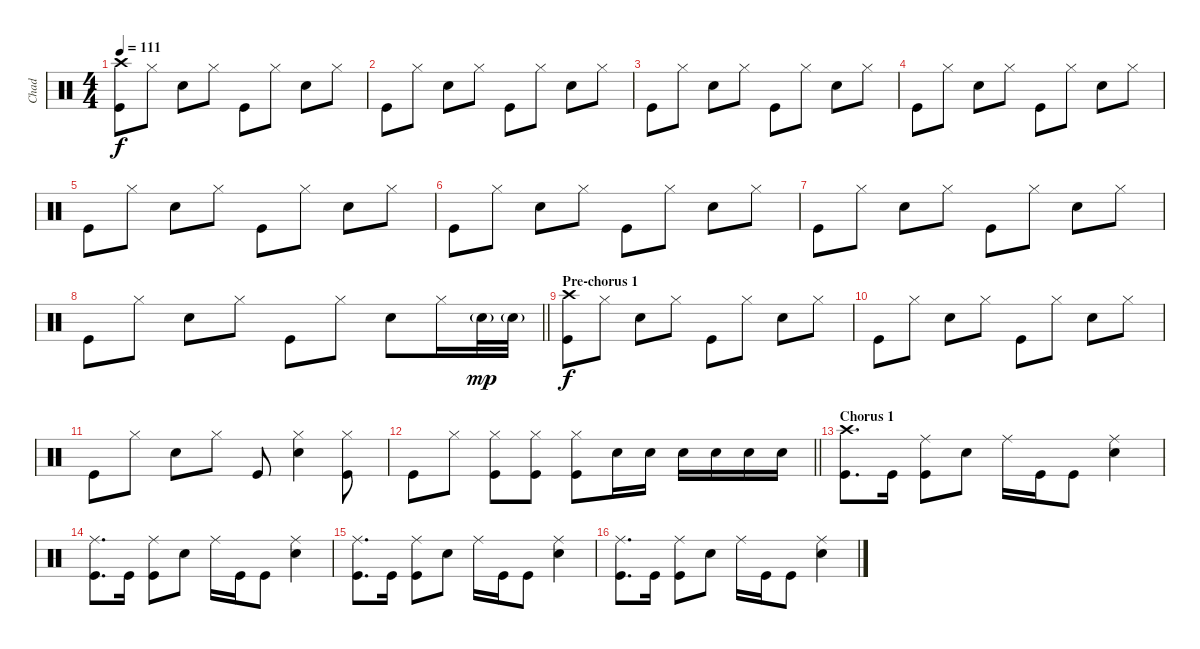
\track ("Chad" "Chad") {instrument percussion}
\staff {score}
\articulation defaults
\ts (4 4)
\tempo 111
\clef neutral
\ks c
("Crash high (hit)" "Kick (hit)").8{dy f} "Hi-Hat (closed)".8 "Snare (hit) 2".8 "Hi-Hat (closed)".8 "Kick (hit)".8 "Hi-Hat (closed)".8 "Snare (hit) 2".8 "Hi-Hat (closed)".8 |
"Kick (hit)".8 "Hi-Hat (closed)".8 "Snare (hit) 2".8 "Hi-Hat (closed)".8 "Kick (hit)".8 "Hi-Hat (closed)".8 "Snare (hit) 2".8 "Hi-Hat (closed)".8 |
"Kick (hit)".8 "Hi-Hat (closed)".8 "Snare (hit) 2".8 "Hi-Hat (closed)".8 "Kick (hit)".8 "Hi-Hat (closed)".8 "Snare (hit) 2".8 "Hi-Hat (closed)".8 |
"Kick (hit)".8 "Hi-Hat (closed)".8 "Snare (hit) 2".8 "Hi-Hat (closed)".8 "Kick (hit)".8 "Hi-Hat (closed)".8 "Snare (hit) 2".8 "Hi-Hat (closed)".8 |
"Kick (hit)".8 "Hi-Hat (closed)".8 "Snare (hit) 2".8 "Hi-Hat (closed)".8 "Kick (hit)".8 "Hi-Hat (closed)".8 "Snare (hit) 2".8 "Hi-Hat (closed)".8 |
"Kick (hit)".8 "Hi-Hat (closed)".8 "Snare (hit) 2".8 "Hi-Hat (closed)".8 "Kick (hit)".8 "Hi-Hat (closed)".8 "Snare (hit) 2".8 "Hi-Hat (closed)".8 |
"Kick (hit)".8 "Hi-Hat (closed)".8 "Snare (hit) 2".8 "Hi-Hat (closed)".8 "Kick (hit)".8 "Hi-Hat (closed)".8 "Snare (hit) 2".8 "Hi-Hat (closed)".8 |
\barLineRight lightlight "Kick (hit)".8 "Hi-Hat (closed)".8 "Snare (hit) 2".8 "Hi-Hat (closed)".8 "Kick (hit)".8 "Hi-Hat (closed)".8 "Snare (hit) 2".8 "Hi-Hat (closed)".16 "Snare (hit) 2"{g}.32{dy mp} "Snare (hit) 2"{g}.32
|
\section ("" "Pre-chorus 1")
("Crash high (hit)" "Kick (hit)").8{dy f} "Hi-Hat (closed)".8 "Snare (hit) 2".8 "Hi-Hat (closed)".8 "Kick (hit)".8 "Hi-Hat (closed)".8 "Snare (hit) 2".8 "Hi-Hat (closed)".8 |
"Kick (hit)".8 "Hi-Hat (closed)".8 "Snare (hit) 2".8 "Hi-Hat (closed)".8 "Kick (hit)".8 "Hi-Hat (closed)".8 "Snare (hit) 2".8 "Hi-Hat (closed)".8 |
"Kick (hit)".8 "Hi-Hat (closed)".8 "Snare (hit) 2".8 "Hi-Hat (closed)".8 "Kick (hit)".8 ("Snare (hit) 2" "Hi-Hat (closed)").4 ("Kick (hit)" "Hi-Hat (closed)").8 |
\barLineRight lightlight "Kick (hit)".8 "Hi-Hat (closed)".8
("Kick (hit)" "Hi-Hat (closed)").8 ("Kick (hit)" "Hi-Hat (closed)").8 ("Kick (hit)" "Hi-Hat (closed)").8 "Snare (hit) 2".16 "Snare (hit) 2".16 "Snare (hit) 2".16 "Snare (hit) 2".16 "Snare (hit) 2".16 "Snare (hit) 2".16 |
\section ("" "Chorus 1")
("Kick (hit)" "Crash high (hit)").8{d} "Kick (hit)".16 ("Kick (hit)" "Ride (middle)").8 "Snare (hit) 2".8 "Ride (middle)".16 "Kick (hit)".16 "Kick (hit)".8 ("Snare (hit) 2" "Ride (middle)").4 |
("Kick (hit)" "Ride (middle)").8{d} "Kick (hit)".16 ("Kick (hit)" "Ride (middle)").8 "Snare (hit) 2".8 "Ride (middle)".16 "Kick (hit)".16 "Kick (hit)".8 ("Snare (hit) 2" "Ride (middle)").4 |
("Kick (hit)" "Ride (middle)").8{d} "Kick (hit)".16 ("Kick (hit)" "Ride (middle)").8 "Snare (hit) 2".8 "Ride (middle)".16 "Kick (hit)".16 "Kick (hit)".8 ("Snare (hit) 2" "Ride (middle)").4 |
("Kick (hit)" "Ride (middle)").8{d} "Kick (hit)".16 ("Kick (hit)" "Ride (middle)").8 "Snare (hit) 2".8 "Ride (middle)".16 "Kick (hit)".16 "Kick (hit)".8 ("Snare (hit) 2" "Ride (middle)").4
